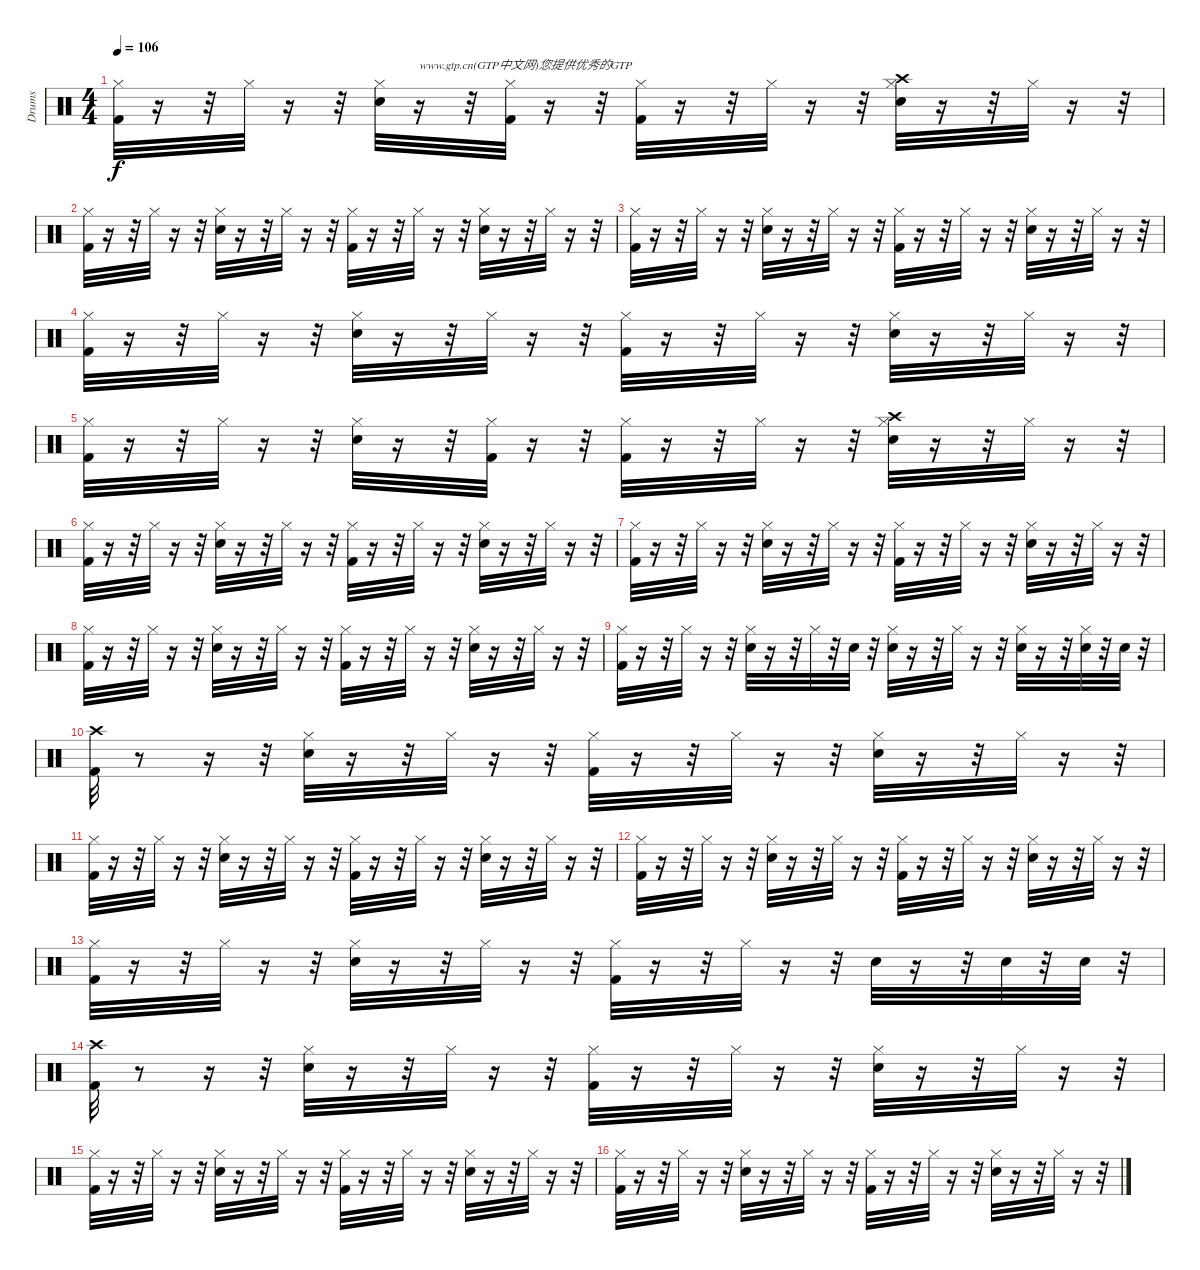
\track ("Drums" "Drums") {instrument percussion}
\staff {score}
\articulation defaults
\ts (4 4)
\tempo 106
\clef neutral
\ks c
("Hi-Hat (closed)" "Kick (hit) 2").32{dy f} r.16 r.32 "Hi-Hat (closed)".32 r.16 r.32 ("Hi-Hat (closed)" "Snare (hit) 2").32 r.16{txt "www.gtp.cn(GTP中文网)您提供优秀的GTP"} r.32 ("Hi-Hat (closed)" "Kick (hit) 2").32 r.16 r.32 ("Hi-Hat (closed)" "Kick (hit) 2").32 r.16 r.32 "Hi-Hat (closed)".32 r.16 r.32 ("Crash high (hit)" "Hi-Hat (closed)" "Snare (hit) 2").32 r.16 r.32 "Hi-Hat (closed)".32 r.16 r.32 |
("Kick (hit) 2" "Hi-Hat (closed)").32 r.16 r.32 "Hi-Hat (closed)".32 r.16 r.32 ("Hi-Hat (closed)" "Snare (hit) 2").32 r.16 r.32 "Hi-Hat (closed)".32 r.16 r.32 ("Hi-Hat (closed)" "Kick (hit) 2").32 r.16 r.32 "Hi-Hat (closed)".32 r.16 r.32 ("Hi-Hat (closed)" "Snare (hit) 2").32 r.16 r.32 "Hi-Hat (closed)".32 r.16 r.32 |
("Hi-Hat (closed)" "Kick (hit) 2").32 r.16 r.32 "Hi-Hat (closed)".32 r.16 r.32 ("Hi-Hat (closed)" "Snare (hit) 2").32 r.16 r.32 "Hi-Hat (closed)".32 r.16 r.32 ("Hi-Hat (closed)" "Kick (hit) 2").32 r.16 r.32 "Hi-Hat (closed)".32 r.16 r.32 ("Hi-Hat (closed)" "Snare (hit) 2").32 r.16 r.32 "Hi-Hat (closed)".32 r.16 r.32 |
("Kick (hit) 2" "Hi-Hat (closed)").32 r.16 r.32 "Hi-Hat (closed)".32 r.16 r.32 ("Hi-Hat (closed)" "Snare (hit) 2").32 r.16 r.32 "Hi-Hat (closed)".32 r.16 r.32 ("Hi-Hat (closed)" "Kick (hit) 2").32 r.16 r.32 "Hi-Hat (closed)".32 r.16 r.32 ("Hi-Hat (closed)" "Snare (hit) 2").32 r.16 r.32 "Hi-Hat (closed)".32 r.16 r.32 |
("Hi-Hat (closed)" "Kick (hit) 2").32 r.16 r.32 "Hi-Hat (closed)".32 r.16 r.32 ("Hi-Hat (closed)" "Snare (hit) 2").32 r.16 r.32 ("Hi-Hat (closed)" "Kick (hit) 2").32 r.16 r.32 ("Hi-Hat (closed)" "Kick (hit) 2").32 r.16 r.32 "Hi-Hat (closed)".32 r.16 r.32 ("Crash high (hit)" "Hi-Hat (closed)" "Snare (hit) 2").32 r.16 r.32 "Hi-Hat (closed)".32 r.16 r.32 |
("Kick (hit) 2" "Hi-Hat (closed)").32 r.16 r.32 "Hi-Hat (closed)".32 r.16 r.32 ("Hi-Hat (closed)" "Snare (hit) 2").32 r.16 r.32 "Hi-Hat (closed)".32 r.16 r.32 ("Hi-Hat (closed)" "Kick (hit) 2").32 r.16 r.32 "Hi-Hat (closed)".32 r.16 r.32 ("Hi-Hat (closed)" "Snare (hit) 2").32 r.16 r.32 "Hi-Hat (closed)".32 r.16 r.32 |
("Hi-Hat (closed)" "Kick (hit) 2").32 r.16 r.32 "Hi-Hat (closed)".32 r.16 r.32 ("Hi-Hat (closed)" "Snare (hit) 2").32 r.16 r.32 "Hi-Hat (closed)".32 r.16 r.32 ("Hi-Hat (closed)" "Kick (hit) 2").32 r.16 r.32 "Hi-Hat (closed)".32 r.16 r.32 ("Hi-Hat (closed)" "Snare (hit) 2").32 r.16 r.32 "Hi-Hat (closed)".32 r.16 r.32 |
("Hi-Hat (closed)" "Kick (hit) 2").32 r.16 r.32 "Hi-Hat (closed)".32 r.16 r.32 ("Hi-Hat (closed)" "Snare (hit) 2").32 r.16 r.32 "Hi-Hat (closed)".32 r.16 r.32 ("Hi-Hat (closed)" "Kick (hit) 2").32 r.16 r.32 "Hi-Hat (closed)".32 r.16 r.32 ("Hi-Hat (closed)" "Snare (hit) 2").32 r.16 r.32 "Hi-Hat (closed)".32 r.16 r.32 |
("Hi-Hat (closed)" "Kick (hit) 2").32 r.16 r.32 "Hi-Hat (closed)".32 r.16 r.32 ("Hi-Hat (closed)" "Snare (hit) 2").32 r.16 r.32 "Hi-Hat (closed)".32 r.32 "Snare (hit) 2".32 r.32 ("Hi-Hat (closed)" "Snare (hit) 2").32 r.16 r.32 "Hi-Hat (closed)".32 r.16 r.32 ("Hi-Hat (closed)" "Snare (hit) 2").32 r.16 r.32 ("Hi-Hat (closed)" "Snare (hit) 2").32 r.32 "Snare (hit) 2".32 r.32 |
("Crash high (hit)" "Kick (hit) 2").32 r.8 r.16 r.32 ("Hi-Hat (closed)" "Snare (hit) 2").32 r.16 r.32 "Hi-Hat (closed)".32 r.16 r.32 ("Hi-Hat (closed)" "Kick (hit) 2").32 r.16 r.32 "Hi-Hat (closed)".32 r.16 r.32 ("Hi-Hat (closed)" "Snare (hit) 2").32 r.16 r.32 "Hi-Hat (closed)".32 r.16 r.32 |
("Hi-Hat (closed)" "Kick (hit) 2").32 r.16 r.32 "Hi-Hat (closed)".32 r.16 r.32 ("Hi-Hat (closed)" "Snare (hit) 2").32 r.16 r.32 "Hi-Hat (closed)".32 r.16 r.32 ("Hi-Hat (closed)" "Kick (hit) 2").32 r.16 r.32 "Hi-Hat (closed)".32 r.16 r.32 ("Hi-Hat (closed)" "Snare (hit) 2").32 r.16 r.32 "Hi-Hat (closed)".32 r.16 r.32 |
("Hi-Hat (closed)" "Kick (hit) 2").32 r.16 r.32 "Hi-Hat (closed)".32 r.16 r.32 ("Hi-Hat (closed)" "Snare (hit) 2").32 r.16 r.32 "Hi-Hat (closed)".32 r.16 r.32 ("Hi-Hat (closed)" "Kick (hit) 2").32 r.16 r.32 "Hi-Hat (closed)".32 r.16 r.32 ("Hi-Hat (closed)" "Snare (hit) 2").32 r.16 r.32 "Hi-Hat (closed)".32 r.16 r.32 |
("Hi-Hat (closed)" "Kick (hit) 2").32 r.16 r.32 "Hi-Hat (closed)".32 r.16 r.32 ("Hi-Hat (closed)" "Snare (hit) 2").32 r.16 r.32 "Hi-Hat (closed)".32 r.16 r.32 ("Hi-Hat (closed)" "Kick (hit) 2").32 r.16 r.32 "Hi-Hat (closed)".32 r.16 r.32 "Snare (hit) 2".32 r.16 r.32 "Snare (hit) 2".32 r.32 "Snare (hit) 2".32 r.32 |
("Crash high (hit)" "Kick (hit) 2").32 r.8 r.16 r.32 ("Hi-Hat (closed)" "Snare (hit) 2").32 r.16 r.32 "Hi-Hat (closed)".32 r.16 r.32 ("Hi-Hat (closed)" "Kick (hit) 2").32 r.16 r.32 "Hi-Hat (closed)".32 r.16 r.32 ("Hi-Hat (closed)" "Snare (hit) 2").32 r.16 r.32 "Hi-Hat (closed)".32 r.16 r.32 |
("Hi-Hat (closed)" "Kick (hit) 2").32 r.16 r.32 "Hi-Hat (closed)".32 r.16 r.32 ("Hi-Hat (closed)" "Snare (hit) 2").32 r.16 r.32 "Hi-Hat (closed)".32 r.16 r.32 ("Hi-Hat (closed)" "Kick (hit) 2").32 r.16 r.32 "Hi-Hat (closed)".32 r.16 r.32 ("Hi-Hat (closed)" "Snare (hit) 2").32 r.16 r.32 "Hi-Hat (closed)".32 r.16 r.32 |
("Hi-Hat (closed)" "Kick (hit) 2").32 r.16 r.32 "Hi-Hat (closed)".32 r.16 r.32 ("Hi-Hat (closed)" "Snare (hit) 2").32 r.16 r.32 "Hi-Hat (closed)".32 r.16 r.32 ("Hi-Hat (closed)" "Kick (hit) 2").32 r.16 r.32 "Hi-Hat (closed)".32 r.16 r.32 ("Hi-Hat (closed)" "Snare (hit) 2").32 r.16 r.32 "Hi-Hat (closed)".32 r.16 r.32
